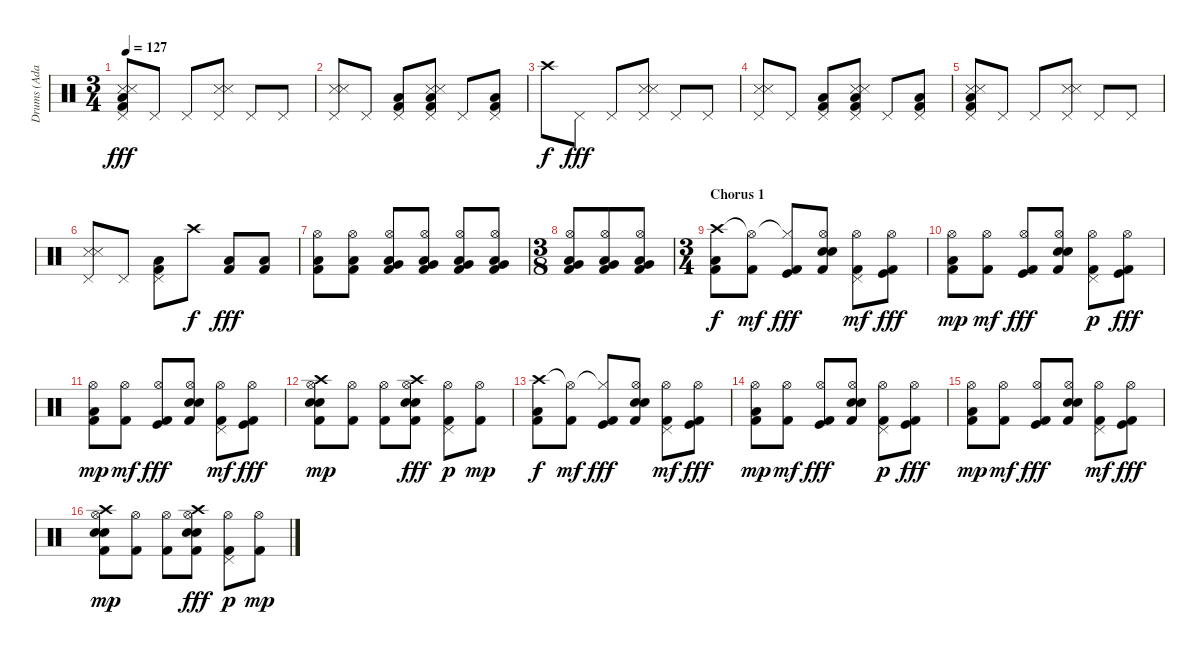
\track ("Drums (Adam)" "Drums (Ada") {instrument percussion}
\staff {score}
\articulation defaults
\ts (3 4)
\tempo 127
\clef neutral
\ks c
("Pedal Hi-Hat (hit)" "Snare (side stick) 3" "Low Tom (hit)" "Snare (side stick) 3" "Kick (hit) 2").8{dy fff} "Pedal Hi-Hat (hit)".8 "Pedal Hi-Hat (hit)".8 ("Pedal Hi-Hat (hit)" "Snare (side stick) 3" "Snare (side stick) 3").8 "Pedal Hi-Hat (hit)".8 "Pedal Hi-Hat (hit)".8 |
("Pedal Hi-Hat (hit)" "Snare (side stick) 3" "Snare (side stick) 3").8 "Pedal Hi-Hat (hit)".8 ("Pedal Hi-Hat (hit)" "Low Tom (hit)" "Kick (hit) 2").8 ("Pedal Hi-Hat (hit)" "Snare (side stick) 3" "Low Tom (hit)" "Snare (side stick) 3" "Kick (hit) 2").8 "Pedal Hi-Hat (hit)".8 ("Pedal Hi-Hat (hit)" "Low Tom (hit)" "Kick (hit) 2").8 |
"Crash high (hit)".8{dy f} "Pedal Hi-Hat (hit)".8{dy fff} "Pedal Hi-Hat (hit)".8 ("Pedal Hi-Hat (hit)" "Snare (side stick) 3" "Snare (side stick) 3").8 "Pedal Hi-Hat (hit)".8 "Pedal Hi-Hat (hit)".8 |
("Pedal Hi-Hat (hit)" "Snare (side stick) 3" "Snare (side stick) 3").8 "Pedal Hi-Hat (hit)".8 ("Pedal Hi-Hat (hit)" "Low Tom (hit)" "Kick (hit) 2").8 ("Pedal Hi-Hat (hit)" "Snare (side stick) 3" "Low Tom (hit)" "Snare (side stick) 3" "Kick (hit) 2").8 "Pedal Hi-Hat (hit)".8 ("Pedal Hi-Hat (hit)" "Low Tom (hit)" "Kick (hit) 2").8 |
("Pedal Hi-Hat (hit)" "Snare (side stick) 3" "Low Tom (hit)" "Snare (side stick) 3" "Kick (hit) 2").8 "Pedal Hi-Hat (hit)".8 "Pedal Hi-Hat (hit)".8 ("Pedal Hi-Hat (hit)" "Snare (side stick) 3" "Snare (side stick) 3").8 "Pedal Hi-Hat (hit)".8 "Pedal Hi-Hat (hit)".8 |
("Pedal Hi-Hat (hit)" "Snare (side stick) 3" "Snare (side stick) 3").8 "Pedal Hi-Hat (hit)".8 ("Pedal Hi-Hat (hit)" "Low Tom (hit)" "Kick (hit) 2").8 "Crash high (hit)".8{dy f} ("Low Tom (hit)" "Kick (hit) 2").8{dy fff} ("Low Tom (hit)" "Kick (hit) 2").8 |
("Hi-Hat (open)" "Low Tom (hit)" "Kick (hit) 2").8 ("Hi-Hat (open)" "Low Tom (hit)" "Kick (hit) 2").8 ("Hi-Hat (open)" "Very Low Tom (hit)" "Low Tom (hit)" "Kick (hit) 2").8 ("Hi-Hat (open)" "Very Low Tom (hit)" "Low Tom (hit)" "Kick (hit) 2").8 ("Hi-Hat (open)" "Very Low Tom (hit)" "Low Tom (hit)" "Kick (hit) 2").8 ("Hi-Hat (open)" "Very Low Tom (hit)" "Low Tom (hit)" "Kick (hit) 2").8 |
\ts (3 8)
("Hi-Hat (open)" "Very Low Tom (hit)" "Low Tom (hit)" "Kick (hit) 2").8 ("Hi-Hat (open)" "Very Low Tom (hit)" "Low Tom (hit)" "Kick (hit) 2").8 ("Hi-Hat (open)" "Very Low Tom (hit)" "Low Tom (hit)" "Kick (hit) 2").8 |
\ts (3 4)
\section ("" "Chorus 1")
("Crash high (hit)" "Low Tom (hit)" "Kick (hit) 2").8{dy f} ("Hi-Hat (open)"{t} "Kick (hit) 2").8{dy mf} ("Hi-Hat (closed)"{t} "Kick (hit)" "Kick (hit) 2").8{dy fff} ("Hi-Hat (open)" "Electric Snare (hit)" "Electric Snare (hit)" "Kick (hit) 2").8 ("Hi-Hat (open)" "Pedal Hi-Hat (hit)" "Kick (hit) 2").8{dy mf} ("Hi-Hat (open)" "Kick (hit)" "Kick (hit) 2").8{dy fff} |
("Hi-Hat (open)" "Low Tom (hit)" "Kick (hit) 2").8{dy mp} ("Hi-Hat (open)" "Kick (hit) 2").8{dy mf} ("Hi-Hat (open)" "Kick (hit)" "Kick (hit) 2").8{dy fff} ("Hi-Hat (open)" "Electric Snare (hit)" "Electric Snare (hit)" "Kick (hit) 2").8 ("Hi-Hat (open)" "Pedal Hi-Hat (hit)" "Kick (hit) 2").8{dy p} ("Hi-Hat (open)" "Kick (hit)" "Kick (hit) 2").8{dy fff} |
("Hi-Hat (open)" "Low Tom (hit)" "Kick (hit) 2").8{dy mp} ("Hi-Hat (open)" "Kick (hit) 2").8{dy mf} ("Hi-Hat (open)" "Kick (hit)" "Kick (hit) 2").8{dy fff} ("Hi-Hat (open)" "Electric Snare (hit)" "Electric Snare (hit)" "Kick (hit) 2").8 ("Hi-Hat (open)" "Pedal Hi-Hat (hit)" "Kick (hit) 2").8{dy mf} ("Hi-Hat (open)" "Kick (hit)" "Kick (hit) 2").8{dy fff} |
("Crash high (hit)" "Hi-Hat (open)" "Electric Snare (hit)" "Electric Snare (hit)" "Kick (hit) 2").8{dy mp} ("Hi-Hat (open)" "Kick (hit) 2").8 ("Hi-Hat (open)" "Kick (hit) 2").8 ("Crash high (hit)" "Hi-Hat (open)" "Electric Snare (hit)" "Electric Snare (hit)" "Kick (hit) 2").8{dy fff} ("Hi-Hat (open)" "Pedal Hi-Hat (hit)" "Kick (hit) 2").8{dy p} ("Hi-Hat (open)" "Kick (hit) 2").8{dy mp} |
("Crash high (hit)" "Low Tom (hit)" "Kick (hit) 2").8{dy f} ("Hi-Hat (open)"{t} "Kick (hit) 2").8{dy mf} ("Hi-Hat (closed)"{t} "Kick (hit)" "Kick (hit) 2").8{dy fff} ("Hi-Hat (open)" "Electric Snare (hit)" "Electric Snare (hit)" "Kick (hit) 2").8 ("Hi-Hat (open)" "Pedal Hi-Hat (hit)" "Kick (hit) 2").8{dy mf} ("Hi-Hat (open)" "Kick (hit)" "Kick (hit) 2").8{dy fff} |
("Hi-Hat (open)" "Low Tom (hit)" "Kick (hit) 2").8{dy mp} ("Hi-Hat (open)" "Kick (hit) 2").8{dy mf} ("Hi-Hat (open)" "Kick (hit)" "Kick (hit) 2").8{dy fff} ("Hi-Hat (open)" "Electric Snare (hit)" "Electric Snare (hit)" "Kick (hit) 2").8 ("Hi-Hat (open)" "Pedal Hi-Hat (hit)" "Kick (hit) 2").8{dy p} ("Hi-Hat (open)" "Kick (hit)" "Kick (hit) 2").8{dy fff} |
("Hi-Hat (open)" "Low Tom (hit)" "Kick (hit) 2").8{dy mp} ("Hi-Hat (open)" "Kick (hit) 2").8{dy mf} ("Hi-Hat (open)" "Kick (hit)" "Kick (hit) 2").8{dy fff} ("Hi-Hat (open)" "Electric Snare (hit)" "Electric Snare (hit)" "Kick (hit) 2").8 ("Hi-Hat (open)" "Pedal Hi-Hat (hit)" "Kick (hit) 2").8{dy mf} ("Hi-Hat (open)" "Kick (hit)" "Kick (hit) 2").8{dy fff} |
("Crash high (hit)" "Hi-Hat (open)" "Electric Snare (hit)" "Electric Snare (hit)" "Kick (hit) 2").8{dy mp} ("Hi-Hat (open)" "Kick (hit) 2").8 ("Hi-Hat (open)" "Kick (hit) 2").8 ("Crash high (hit)" "Hi-Hat (open)" "Electric Snare (hit)" "Electric Snare (hit)" "Kick (hit) 2").8{dy fff} ("Hi-Hat (open)" "Pedal Hi-Hat (hit)" "Kick (hit) 2").8{dy p} ("Hi-Hat (open)" "Kick (hit) 2").8{dy mp}
